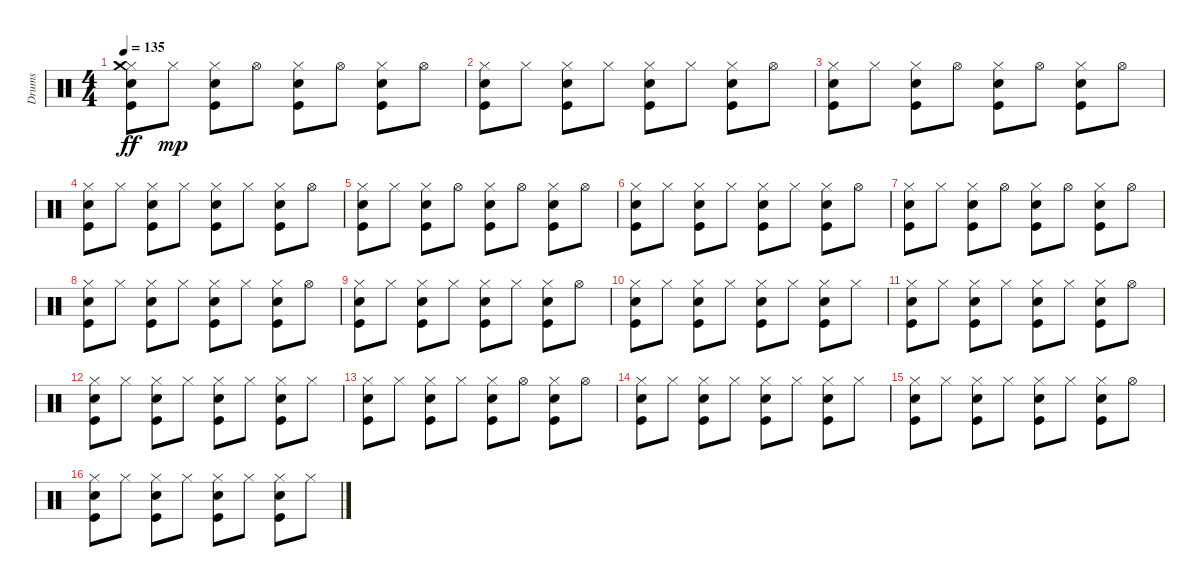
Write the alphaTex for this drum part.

\track ("Drums   " "Drums   ") {instrument percussion}
\staff {score}
\articulation defaults
\ts (4 4)
\tempo 135
\clef neutral
\ks c
("Snare (hit) 2" "Hi-Hat (closed)" "Kick (hit)" "Crash medium (hit)").8{dy ff} "Hi-Hat (closed)".8{dy mp} ("Snare (hit) 2" "Hi-Hat (closed)" "Kick (hit)").8 "Hi-Hat (open)".8 ("Snare (hit) 2" "Hi-Hat (closed)" "Kick (hit)").8 "Hi-Hat (open)".8 ("Snare (hit) 2" "Hi-Hat (closed)" "Kick (hit)").8 "Hi-Hat (open)".8 |
("Snare (hit) 2" "Hi-Hat (closed)" "Kick (hit)").8 "Hi-Hat (closed)".8 ("Snare (hit) 2" "Hi-Hat (closed)" "Kick (hit)").8 "Hi-Hat (closed)".8 ("Snare (hit) 2" "Hi-Hat (closed)" "Kick (hit)").8 "Hi-Hat (closed)".8 ("Snare (hit) 2" "Hi-Hat (closed)" "Kick (hit)").8 "Hi-Hat (open)".8 |
("Snare (hit) 2" "Hi-Hat (closed)" "Kick (hit)").8 "Hi-Hat (closed)".8 ("Snare (hit) 2" "Hi-Hat (closed)" "Kick (hit)").8 "Hi-Hat (open)".8 ("Snare (hit) 2" "Hi-Hat (closed)" "Kick (hit)").8 "Hi-Hat (open)".8 ("Snare (hit) 2" "Hi-Hat (closed)" "Kick (hit)").8 "Hi-Hat (open)".8 |
("Snare (hit) 2" "Hi-Hat (closed)" "Kick (hit)").8 "Hi-Hat (closed)".8 ("Snare (hit) 2" "Hi-Hat (closed)" "Kick (hit)").8 "Hi-Hat (closed)".8 ("Snare (hit) 2" "Hi-Hat (closed)" "Kick (hit)").8 "Hi-Hat (closed)".8 ("Snare (hit) 2" "Hi-Hat (closed)" "Kick (hit)").8 "Hi-Hat (open)".8 |
("Snare (hit) 2" "Hi-Hat (closed)" "Kick (hit)").8 "Hi-Hat (closed)".8 ("Snare (hit) 2" "Hi-Hat (closed)" "Kick (hit)").8 "Hi-Hat (open)".8 ("Snare (hit) 2" "Hi-Hat (closed)" "Kick (hit)").8 "Hi-Hat (open)".8 ("Snare (hit) 2" "Hi-Hat (closed)" "Kick (hit)").8 "Hi-Hat (open)".8 |
("Snare (hit) 2" "Hi-Hat (closed)" "Kick (hit)").8 "Hi-Hat (closed)".8 ("Snare (hit) 2" "Hi-Hat (closed)" "Kick (hit)").8 "Hi-Hat (closed)".8 ("Snare (hit) 2" "Hi-Hat (closed)" "Kick (hit)").8 "Hi-Hat (closed)".8 ("Snare (hit) 2" "Hi-Hat (closed)" "Kick (hit)").8 "Hi-Hat (open)".8 |
("Snare (hit) 2" "Hi-Hat (closed)" "Kick (hit)").8 "Hi-Hat (closed)".8 ("Snare (hit) 2" "Hi-Hat (closed)" "Kick (hit)").8 "Hi-Hat (open)".8 ("Snare (hit) 2" "Hi-Hat (closed)" "Kick (hit)").8 "Hi-Hat (open)".8 ("Snare (hit) 2" "Hi-Hat (closed)" "Kick (hit)").8 "Hi-Hat (open)".8 |
("Snare (hit) 2" "Hi-Hat (closed)" "Kick (hit)").8 "Hi-Hat (closed)".8 ("Snare (hit) 2" "Hi-Hat (closed)" "Kick (hit)").8 "Hi-Hat (closed)".8 ("Snare (hit) 2" "Hi-Hat (closed)" "Kick (hit)").8 "Hi-Hat (closed)".8 ("Snare (hit) 2" "Hi-Hat (closed)" "Kick (hit)").8 "Hi-Hat (open)".8 |
("Snare (hit) 2" "Hi-Hat (closed)" "Kick (hit)").8 "Hi-Hat (closed)".8 ("Snare (hit) 2" "Hi-Hat (closed)" "Kick (hit)").8 "Hi-Hat (closed)".8 ("Snare (hit) 2" "Hi-Hat (closed)" "Kick (hit)").8 "Hi-Hat (closed)".8 ("Snare (hit) 2" "Hi-Hat (closed)" "Kick (hit)").8 "Hi-Hat (open)".8 |
("Snare (hit) 2" "Hi-Hat (closed)" "Kick (hit)").8 "Hi-Hat (closed)".8 ("Snare (hit) 2" "Hi-Hat (closed)" "Kick (hit)").8 "Hi-Hat (closed)".8 ("Snare (hit) 2" "Hi-Hat (closed)" "Kick (hit)").8 "Hi-Hat (closed)".8 ("Snare (hit) 2" "Hi-Hat (closed)" "Kick (hit)").8 "Hi-Hat (closed)".8 |
("Snare (hit) 2" "Hi-Hat (closed)" "Kick (hit)").8 "Hi-Hat (closed)".8 ("Snare (hit) 2" "Hi-Hat (closed)" "Kick (hit)").8 "Hi-Hat (closed)".8 ("Snare (hit) 2" "Hi-Hat (closed)" "Kick (hit)").8 "Hi-Hat (closed)".8 ("Snare (hit) 2" "Hi-Hat (closed)" "Kick (hit)").8 "Hi-Hat (open)".8 |
("Snare (hit) 2" "Hi-Hat (closed)" "Kick (hit)").8 "Hi-Hat (closed)".8 ("Snare (hit) 2" "Hi-Hat (closed)" "Kick (hit)").8 "Hi-Hat (closed)".8 ("Snare (hit) 2" "Hi-Hat (closed)" "Kick (hit)").8 "Hi-Hat (closed)".8 ("Snare (hit) 2" "Hi-Hat (closed)" "Kick (hit)").8 "Hi-Hat (closed)".8 |
("Snare (hit) 2" "Hi-Hat (closed)" "Kick (hit)").8 "Hi-Hat (closed)".8 ("Snare (hit) 2" "Hi-Hat (closed)" "Kick (hit)").8 "Hi-Hat (closed)".8 ("Snare (hit) 2" "Hi-Hat (closed)" "Kick (hit)").8 "Hi-Hat (open)".8 ("Snare (hit) 2" "Hi-Hat (closed)" "Kick (hit)").8 "Hi-Hat (open)".8 |
("Snare (hit) 2" "Hi-Hat (closed)" "Kick (hit)").8 "Hi-Hat (closed)".8 ("Snare (hit) 2" "Hi-Hat (closed)" "Kick (hit)").8 "Hi-Hat (closed)".8 ("Snare (hit) 2" "Hi-Hat (closed)" "Kick (hit)").8 "Hi-Hat (closed)".8 ("Snare (hit) 2" "Hi-Hat (closed)" "Kick (hit)").8 "Hi-Hat (closed)".8 |
("Snare (hit) 2" "Hi-Hat (closed)" "Kick (hit)").8 "Hi-Hat (closed)".8 ("Snare (hit) 2" "Hi-Hat (closed)" "Kick (hit)").8 "Hi-Hat (closed)".8 ("Snare (hit) 2" "Hi-Hat (closed)" "Kick (hit)").8 "Hi-Hat (closed)".8 ("Snare (hit) 2" "Hi-Hat (closed)" "Kick (hit)").8 "Hi-Hat (open)".8 |
("Snare (hit) 2" "Hi-Hat (closed)" "Kick (hit)").8 "Hi-Hat (closed)".8 ("Snare (hit) 2" "Hi-Hat (closed)" "Kick (hit)").8 "Hi-Hat (closed)".8 ("Snare (hit) 2" "Hi-Hat (closed)" "Kick (hit)").8 "Hi-Hat (closed)".8 ("Snare (hit) 2" "Hi-Hat (closed)" "Kick (hit)").8 "Hi-Hat (closed)".8
